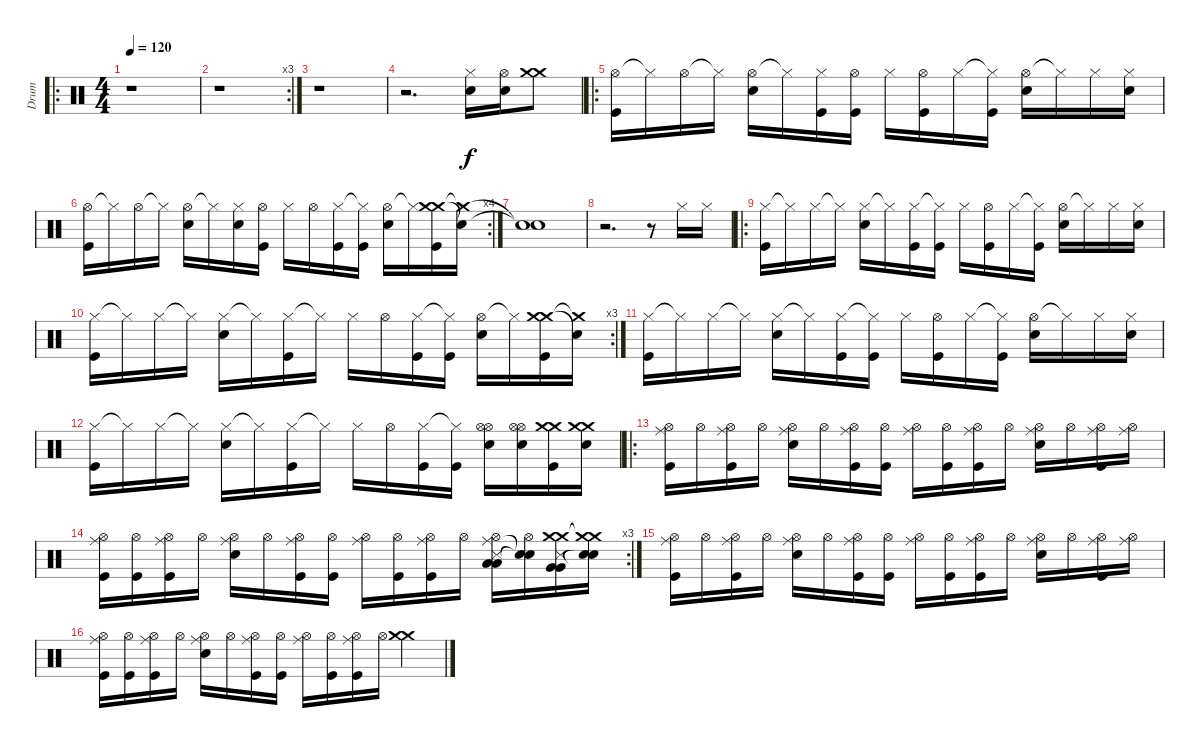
\track ("Drum" "Drum") {instrument percussion}
\staff {score}
\articulation defaults
\ro
\ts (4 4)
\tempo 120
\clef neutral
\ks c
r.1{dy f} |
\rc 3
r.1 |
r.1 |
r.2{d} ("Hi-Hat (closed)" "Snare (hit) 2").16 ("Hi-Hat (open)" "Snare (hit) 2").16 ("Crash medium (hit)" "Crash medium (hit)").8 |
\ro
("Hi-Hat (open)" "Kick (hit)").16 "Hi-Hat (closed)"{t}.16 "Hi-Hat (open)".16 "Hi-Hat (closed)"{t}.16 ("Hi-Hat (open)" "Snare (hit) 2").16 "Hi-Hat (closed)"{t}.16 ("Hi-Hat (closed)" "Kick (hit)").16 ("Hi-Hat (open)" "Kick (hit)").16 "Hi-Hat (closed)".16 ("Hi-Hat (open)" "Kick (hit)").16 "Hi-Hat (closed)".16 ("Hi-Hat (closed)"{t} "Kick (hit)").16 ("Hi-Hat (open)" "Snare (hit) 2").16 "Hi-Hat (closed)"{t}.16 "Hi-Hat (closed)".16 ("Hi-Hat (closed)" "Snare (hit) 2").16 |
\rc 4
("Hi-Hat (open)" "Kick (hit)").16 "Hi-Hat (closed)"{t}.16 "Hi-Hat (open)".16 "Hi-Hat (closed)"{t}.16 ("Hi-Hat (open)" "Snare (hit) 2").16 "Hi-Hat (closed)"{t}.16 ("Hi-Hat (closed)" "Snare (hit) 2").16 ("Hi-Hat (open)" "Kick (hit)").16 "Hi-Hat (closed)".16 "Hi-Hat (open)".16 ("Hi-Hat (closed)" "Kick (hit)").16 ("Hi-Hat (closed)"{t} "Kick (hit)").16 ("Hi-Hat (open)" "Snare (hit) 2").16 "Hi-Hat (closed)"{t}.16 ("Crash medium (hit)" "Crash medium (hit)" "Kick (hit)").16 ("Crash medium (hit)"{t} "Snare (hit)"{t}).16 |
("Snare (hit)"{t} "Snare (hit)"{t}).1 |
r.2{d} r.8 "Hi-Hat (closed)".16 "Hi-Hat (closed)".16 |
\ro
("Hi-Hat (closed)" "Kick (hit)").16{volume 14} "Hi-Hat (closed)"{t}.16 "Hi-Hat (closed)".16 "Hi-Hat (closed)"{t}.16 ("Hi-Hat (closed)" "Snare (hit) 2").16 "Hi-Hat (closed)"{t}.16 ("Hi-Hat (closed)" "Kick (hit)").16 ("Hi-Hat (closed)"{t} "Kick (hit)").16 "Hi-Hat (closed)".16 ("Hi-Hat (open)" "Kick (hit)").16 "Hi-Hat (closed)".16 ("Hi-Hat (closed)"{t} "Kick (hit)").16 ("Hi-Hat (open)" "Snare (hit) 2").16 "Hi-Hat (closed)"{t}.16 "Hi-Hat (closed)".16 ("Hi-Hat (closed)" "Snare (hit) 2").16 |
\rc 3
("Hi-Hat (closed)" "Kick (hit)").16 "Hi-Hat (closed)"{t}.16 "Hi-Hat (closed)".16 "Hi-Hat (closed)"{t}.16 ("Hi-Hat (closed)" "Snare (hit) 2").16 "Hi-Hat (closed)"{t}.16 ("Hi-Hat (closed)" "Kick (hit)").16 "Hi-Hat (closed)"{t}.16 "Hi-Hat (closed)".16 "Hi-Hat (open)".16 ("Hi-Hat (closed)" "Kick (hit)").16 ("Hi-Hat (closed)"{t} "Kick (hit)").16 ("Hi-Hat (open)" "Snare (hit) 2").16 "Hi-Hat (closed)"{t}.16 ("Crash medium (hit)" "Crash medium (hit)" "Kick (hit)").16 ("Crash medium (hit)"{t} "Snare (hit)"{t}).16 |
("Hi-Hat (closed)" "Kick (hit)").16 "Hi-Hat (closed)"{t}.16 "Hi-Hat (closed)".16 "Hi-Hat (closed)"{t}.16 ("Hi-Hat (closed)" "Snare (hit) 2").16 "Hi-Hat (closed)"{t}.16 ("Hi-Hat (closed)" "Kick (hit)").16 ("Hi-Hat (closed)"{t} "Kick (hit)").16 "Hi-Hat (closed)".16 ("Hi-Hat (open)" "Kick (hit)").16 "Hi-Hat (closed)".16 ("Hi-Hat (closed)"{t} "Kick (hit)").16 ("Hi-Hat (open)" "Snare (hit) 2").16 "Hi-Hat (closed)"{t}.16 "Hi-Hat (closed)".16 ("Hi-Hat (closed)" "Snare (hit) 2").16 |
("Hi-Hat (closed)" "Kick (hit)").16 "Hi-Hat (closed)"{t}.16 "Hi-Hat (closed)".16 "Hi-Hat (closed)"{t}.16 ("Hi-Hat (closed)" "Snare (hit) 2").16 "Hi-Hat (closed)"{t}.16 ("Hi-Hat (closed)" "Kick (hit)").16 "Hi-Hat (closed)"{t}.16 "Hi-Hat (closed)".16 "Hi-Hat (open)".16 ("Hi-Hat (closed)" "Kick (hit)").16 ("Hi-Hat (closed)"{t} "Kick (hit)").16 ("Hi-Hat (open)" "Hi-Hat (open)" "Snare (hit) 2").16{volume 16} ("Hi-Hat (open)" "Hi-Hat (open)" "Snare (hit) 2").16 ("Crash medium (hit)" "Crash medium (hit)" "Kick (hit)").16 ("Crash medium (hit)" "Crash medium (hit)" "Snare (hit) 2").16 |
\ro
("Hi-Hat (open)" "Ride (middle)" "Kick (hit)").16 "Hi-Hat (open)".16 ("Hi-Hat (open)" "Ride (middle)" "Kick (hit)").16 "Hi-Hat (open)".16 ("Hi-Hat (open)" "Ride (middle)" "Snare (hit) 2").16 "Hi-Hat (open)".16 ("Hi-Hat (open)" "Ride (middle)" "Kick (hit)").16 ("Hi-Hat (open)" "Kick (hit)").16 ("Hi-Hat (open)" "Ride (middle)").16 ("Hi-Hat (open)" "Kick (hit)").16 ("Hi-Hat (open)" "Ride (middle)" "Kick (hit)").16 "Hi-Hat (open)".16 ("Hi-Hat (open)" "Ride (middle)" "Snare (hit) 2").16 "Hi-Hat (open)".16 ("Hi-Hat (open)" "Ride (middle)" "Kick (hit)").16 ("Hi-Hat (open)" "Ride (middle)").16 |
\rc 3
("Hi-Hat (open)" "Ride (middle)" "Kick (hit)").16 ("Hi-Hat (open)" "Kick (hit)").16 ("Hi-Hat (open)" "Ride (middle)" "Kick (hit)").16 "Hi-Hat (open)".16 ("Hi-Hat (open)" "Ride (middle)" "Snare (hit) 2").16 "Hi-Hat (open)".16 ("Hi-Hat (open)" "Ride (middle)" "Kick (hit)").16 ("Hi-Hat (open)" "Kick (hit)").16 ("Hi-Hat (open)" "Ride (middle)").16 ("Hi-Hat (open)" "Kick (hit)").16 ("Hi-Hat (open)" "Ride (middle)" "Kick (hit)").16 "Hi-Hat (open)".16 ("Hi-Hat (open)" "Ride (middle)" "Low Tom (hit)" "Low Tom (hit)" "Metronome (hit)").16 ("Hi-Hat (open)" "Snare (hit)"{t} "Snare (hit)"{t}).16 ("Crash medium (hit)" "Crash medium (hit)" "Very Low Tom (hit)" "Very Low Tom (hit)" "Metronome (hit)").16 ("Crash medium (hit)"{t} "Crash medium (hit)"{t} "Snare (hit)"{t} "Snare (hit)"{t}).16 |
("Hi-Hat (open)" "Ride (middle)" "Kick (hit)").16 "Hi-Hat (open)".16 ("Hi-Hat (open)" "Ride (middle)" "Kick (hit)").16 "Hi-Hat (open)".16 ("Hi-Hat (open)" "Ride (middle)" "Snare (hit) 2").16 "Hi-Hat (open)".16 ("Hi-Hat (open)" "Ride (middle)" "Kick (hit)").16 ("Hi-Hat (open)" "Kick (hit)").16 ("Hi-Hat (open)" "Ride (middle)").16 ("Hi-Hat (open)" "Kick (hit)").16 ("Hi-Hat (open)" "Ride (middle)" "Kick (hit)").16 "Hi-Hat (open)".16 ("Hi-Hat (open)" "Ride (middle)" "Snare (hit) 2").16 "Hi-Hat (open)".16 ("Hi-Hat (open)" "Ride (middle)" "Kick (hit)").16 ("Hi-Hat (open)" "Ride (middle)").16 |
("Hi-Hat (open)" "Ride (middle)" "Kick (hit)").16 ("Hi-Hat (open)" "Kick (hit)").16 ("Hi-Hat (open)" "Ride (middle)" "Kick (hit)").16 "Hi-Hat (open)".16 ("Hi-Hat (open)" "Ride (middle)" "Snare (hit) 2").16 "Hi-Hat (open)".16 ("Hi-Hat (open)" "Ride (middle)" "Kick (hit)").16 ("Hi-Hat (open)" "Kick (hit)").16 ("Hi-Hat (open)" "Ride (middle)").16 ("Hi-Hat (open)" "Kick (hit)").16 ("Hi-Hat (open)" "Ride (middle)" "Kick (hit)").16 "Hi-Hat (open)".16 ("Crash medium (hit)" "Crash medium (hit)").4
